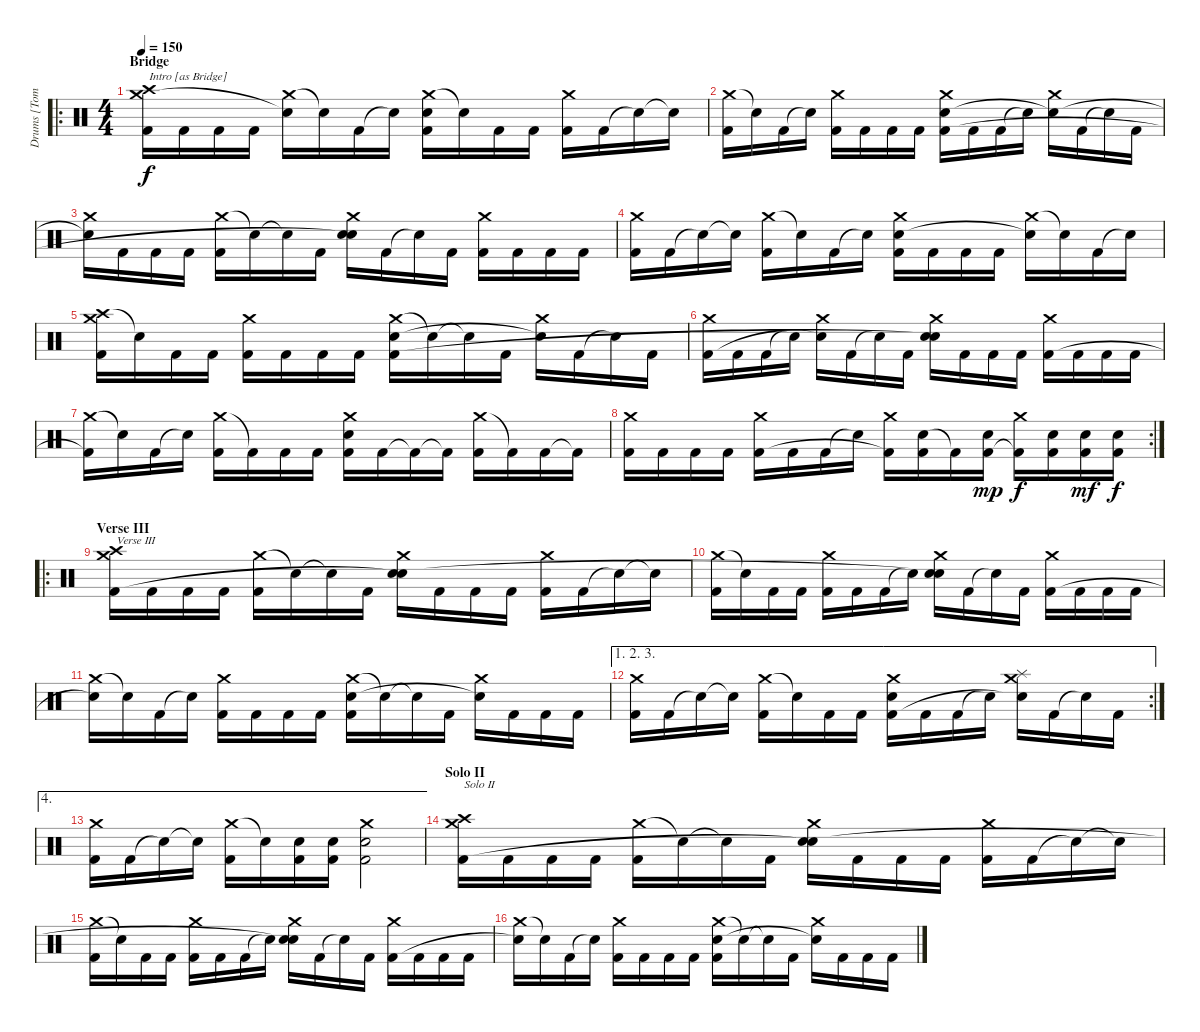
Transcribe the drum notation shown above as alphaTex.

\track ("Drums [Tomas Haake]" "Drums [Tom") {instrument percussion}
\staff {score}
\articulation defaults
\ro
\ts (4 4)
\section ("" "Bridge")
\tempo 150
\clef neutral
\ks c
("Crash high (hit)" "Crash medium (hit)" "Kick (hit) 2").16{txt "Intro [as Bridge]" dy f} "Kick (hit) 2".16 "Kick (hit) 2".16 "Kick (hit) 2".16 ("Crash medium (hit)" "Snare (hit)"{t}).16 "Snare (hit)"{t}.16 "Kick (hit) 2".16 "Snare (hit)"{t}.16 ("Crash medium (hit)" "Electric Snare (hit)" "Kick (hit) 2").16 "Snare (hit)"{t}.16 "Kick (hit) 2".16 "Kick (hit) 2".16 ("Crash medium (hit)" "Kick (hit) 2").16 "Kick (hit) 2".16 "Snare (hit)"{t}.16 "Snare (hit)"{t}.16 |
("Crash medium (hit)" "Kick (hit) 2").16 "Snare (hit)"{t}.16 "Kick (hit) 2".16 "Snare (hit)"{t}.16 ("Crash medium (hit)" "Kick (hit) 2").16 "Kick (hit) 2".16 "Kick (hit) 2".16 "Kick (hit) 2".16 ("Crash medium (hit)" "Electric Snare (hit)" "Kick (hit) 2").16 "Kick (hit) 2".16 "Kick (hit) 2".16 "Snare (hit)"{t}.16 ("Crash medium (hit)" "Snare (hit)"{t}).16 "Kick (hit) 2".16 "Snare (hit)"{t}.16 "Kick (hit) 2".16 |
("Crash medium (hit)" "Snare (hit)"{t}).16 "Kick (hit) 2".16 "Kick (hit) 2".16 "Kick (hit) 2".16 ("Crash medium (hit)" "Kick (hit) 2").16 "Snare (hit)"{t}.16 "Snare (hit)"{t}.16 "Kick (hit) 2".16 ("Crash medium (hit)" "Electric Snare (hit)" "Snare (hit)"{t}).16 "Kick (hit) 2".16 "Snare (hit)"{t}.16 "Kick (hit) 2".16 ("Crash medium (hit)" "Kick (hit) 2").16 "Kick (hit) 2".16 "Kick (hit) 2".16 "Kick (hit) 2".16 |
("Crash medium (hit)" "Kick (hit) 2").16 "Kick (hit) 2".16 "Snare (hit)"{t}.16 "Snare (hit)"{t}.16 ("Crash medium (hit)" "Kick (hit) 2").16 "Snare (hit)"{t}.16 "Kick (hit) 2".16 "Snare (hit)"{t}.16 ("Crash medium (hit)" "Electric Snare (hit)" "Kick (hit) 2").16 "Kick (hit) 2".16 "Kick (hit) 2".16 "Kick (hit) 2".16 ("Crash medium (hit)" "Snare (hit)"{t}).16 "Snare (hit)"{t}.16 "Kick (hit) 2".16 "Snare (hit)"{t}.16 |
("Crash high (hit)" "Crash medium (hit)" "Kick (hit) 2").16 "Snare (hit)"{t}.16 "Kick (hit) 2".16 "Kick (hit) 2".16 ("Crash medium (hit)" "Kick (hit) 2").16 "Kick (hit) 2".16 "Kick (hit) 2".16 "Kick (hit) 2".16 ("Crash medium (hit)" "Electric Snare (hit)" "Kick (hit) 2").16 "Snare (hit)"{t}.16 "Snare (hit)"{t}.16 "Kick (hit) 2".16 ("Crash medium (hit)" "Snare (hit)"{t}).16 "Kick (hit) 2".16 "Snare (hit)"{t}.16 "Kick (hit) 2".16 |
("Crash medium (hit)" "Kick (hit) 2").16 "Kick (hit) 2".16 "Kick (hit) 2".16 "Snare (hit)"{t}.16 ("Crash medium (hit)" "Snare (hit)"{t}).16 "Kick (hit) 2".16 "Snare (hit)"{t}.16 "Kick (hit) 2".16 ("Crash medium (hit)" "Electric Snare (hit)" "Snare (hit)"{t}).16 "Kick (hit) 2".16 "Kick (hit) 2".16 "Kick (hit) 2".16 ("Crash medium (hit)" "Kick (hit) 2").16 "Kick (hit) 2".16 "Kick (hit) 2".16 "Kick (hit) 2".16 |
("Crash medium (hit)" "Kick (hit) 2"{t}).16 "Snare (hit)"{t}.16 "Kick (hit) 2".16 "Snare (hit)"{t}.16 ("Crash medium (hit)" "Kick (hit) 2").16 "Kick (hit) 2"{t}.16 "Kick (hit) 2".16 "Kick (hit) 2".16 ("Crash medium (hit)" "Electric Snare (hit)" "Kick (hit) 2").16 "Kick (hit) 2".16 "Kick (hit) 2"{t}.16 "Kick (hit) 2"{t}.16 ("Crash medium (hit)" "Kick (hit) 2").16 "Kick (hit) 2"{t}.16 "Kick (hit) 2".16 "Kick (hit) 2"{t}.16 |
\rc 2
("Crash medium (hit)" "Kick (hit) 2").16 "Kick (hit) 2".16 "Kick (hit) 2".16 "Kick (hit) 2".16 ("Crash medium (hit)" "Kick (hit) 2").16 "Kick (hit) 2".16 "Kick (hit) 2".16 "Snare (hit)"{t}.16 ("Crash medium (hit)" "Kick (hit) 2"{t}).16 ("Electric Snare (hit)" "Kick (hit) 2").16 "Kick (hit) 2"{t}.16 ("Electric Snare (hit)" "Kick (hit) 2").16{dy mp} ("Crash medium (hit)" "Kick (hit) 2"{t}).16{dy f} ("Electric Snare (hit)" "Kick (hit) 2").16 ("Electric Snare (hit)" "Kick (hit) 2").16{dy mf} ("Electric Snare (hit)" "Kick (hit) 2").16{dy f} |
\ro
\section ("" "Verse III")
("Crash high (hit)" "Crash medium (hit)" "Kick (hit) 2").16{txt "Verse III"} "Kick (hit) 2".16 "Kick (hit) 2".16 "Kick (hit) 2".16 ("Crash medium (hit)" "Kick (hit) 2").16 "Snare (hit)"{t}.16 "Snare (hit)"{t}.16 "Kick (hit) 2".16 ("Crash medium (hit)" "Electric Snare (hit)" "Snare (hit)"{t}).16 "Kick (hit) 2".16 "Kick (hit) 2".16 "Kick (hit) 2".16 ("Crash medium (hit)" "Kick (hit) 2").16 "Kick (hit) 2".16 "Snare (hit)"{t}.16 "Snare (hit)"{t}.16 |
("Crash medium (hit)" "Kick (hit) 2").16 "Snare (hit)"{t}.16 "Kick (hit) 2".16 "Kick (hit) 2".16 ("Crash medium (hit)" "Kick (hit) 2").16 "Kick (hit) 2".16 "Kick (hit) 2".16 "Snare (hit)"{t}.16 ("Crash medium (hit)" "Electric Snare (hit)" "Snare (hit)"{t}).16 "Kick (hit) 2".16 "Snare (hit)"{t}.16 "Kick (hit) 2".16 ("Crash medium (hit)" "Kick (hit) 2").16 "Kick (hit) 2".16 "Kick (hit) 2".16 "Kick (hit) 2".16 |
("Crash medium (hit)" "Snare (hit)"{t}).16 "Snare (hit)"{t}.16 "Kick (hit) 2".16 "Snare (hit)"{t}.16 ("Crash medium (hit)" "Kick (hit) 2").16 "Kick (hit) 2".16 "Kick (hit) 2".16 "Kick (hit) 2".16 ("Crash medium (hit)" "Electric Snare (hit)" "Kick (hit) 2").16 "Snare (hit)"{t}.16 "Snare (hit)"{t}.16 "Kick (hit) 2".16 ("Crash medium (hit)" "Snare (hit)"{t}).16 "Kick (hit) 2".16 "Kick (hit) 2".16 "Kick (hit) 2".16 |
\ae (1 2 3)
\rc 2
("Crash medium (hit)" "Kick (hit) 2").16 "Kick (hit) 2".16 "Snare (hit)"{t}.16 "Snare (hit)"{t}.16 ("Crash medium (hit)" "Kick (hit) 2").16 "Snare (hit)"{t}.16 "Kick (hit) 2".16 "Kick (hit) 2".16 ("Crash medium (hit)" "Electric Snare (hit)" "Kick (hit) 2").16 "Kick (hit) 2".16 "Kick (hit) 2".16 "Snare (hit)"{t}.16 ("Splash (hit)" "Crash medium (hit)" "Snare (hit)"{t}).16 "Kick (hit) 2".16 "Snare (hit)"{t}.16 "Kick (hit) 2".16 |
\ae 4
("Crash medium (hit)" "Kick (hit) 2").16 "Kick (hit) 2".16 "Snare (hit)"{t}.16 "Snare (hit)"{t}.16 ("Crash medium (hit)" "Kick (hit) 2").16 "Snare (hit)"{t}.16 ("Electric Snare (hit)" "Kick (hit) 2").16 ("Electric Snare (hit)" "Kick (hit) 2").16 ("Crash medium (hit)" "Electric Snare (hit)" "Kick (hit) 2").2 |
\section ("" "Solo II")
("Crash high (hit)" "Crash medium (hit)" "Kick (hit) 2").16{txt "Solo II"} "Kick (hit) 2".16 "Kick (hit) 2".16 "Kick (hit) 2".16 ("Crash medium (hit)" "Kick (hit) 2").16 "Snare (hit)"{t}.16 "Snare (hit)"{t}.16 "Kick (hit) 2".16 ("Crash medium (hit)" "Electric Snare (hit)" "Snare (hit)"{t}).16 "Kick (hit) 2".16 "Kick (hit) 2".16 "Kick (hit) 2".16 ("Crash medium (hit)" "Kick (hit) 2").16 "Kick (hit) 2".16 "Snare (hit)"{t}.16 "Snare (hit)"{t}.16 |
("Crash medium (hit)" "Kick (hit) 2").16 "Snare (hit)"{t}.16 "Kick (hit) 2".16 "Kick (hit) 2".16 ("Crash medium (hit)" "Kick (hit) 2").16 "Kick (hit) 2".16 "Kick (hit) 2".16 "Snare (hit)"{t}.16 ("Crash medium (hit)" "Electric Snare (hit)" "Snare (hit)"{t}).16 "Kick (hit) 2".16 "Snare (hit)"{t}.16 "Kick (hit) 2".16 ("Crash medium (hit)" "Kick (hit) 2").16 "Kick (hit) 2".16 "Kick (hit) 2".16 "Kick (hit) 2".16 |
("Crash medium (hit)" "Snare (hit)"{t}).16 "Snare (hit)"{t}.16 "Kick (hit) 2".16 "Snare (hit)"{t}.16 ("Crash medium (hit)" "Kick (hit) 2").16 "Kick (hit) 2".16 "Kick (hit) 2".16 "Kick (hit) 2".16 ("Crash medium (hit)" "Electric Snare (hit)" "Kick (hit) 2").16 "Snare (hit)"{t}.16 "Snare (hit)"{t}.16 "Kick (hit) 2".16 ("Crash medium (hit)" "Snare (hit)"{t}).16 "Kick (hit) 2".16 "Kick (hit) 2".16 "Kick (hit) 2".16
